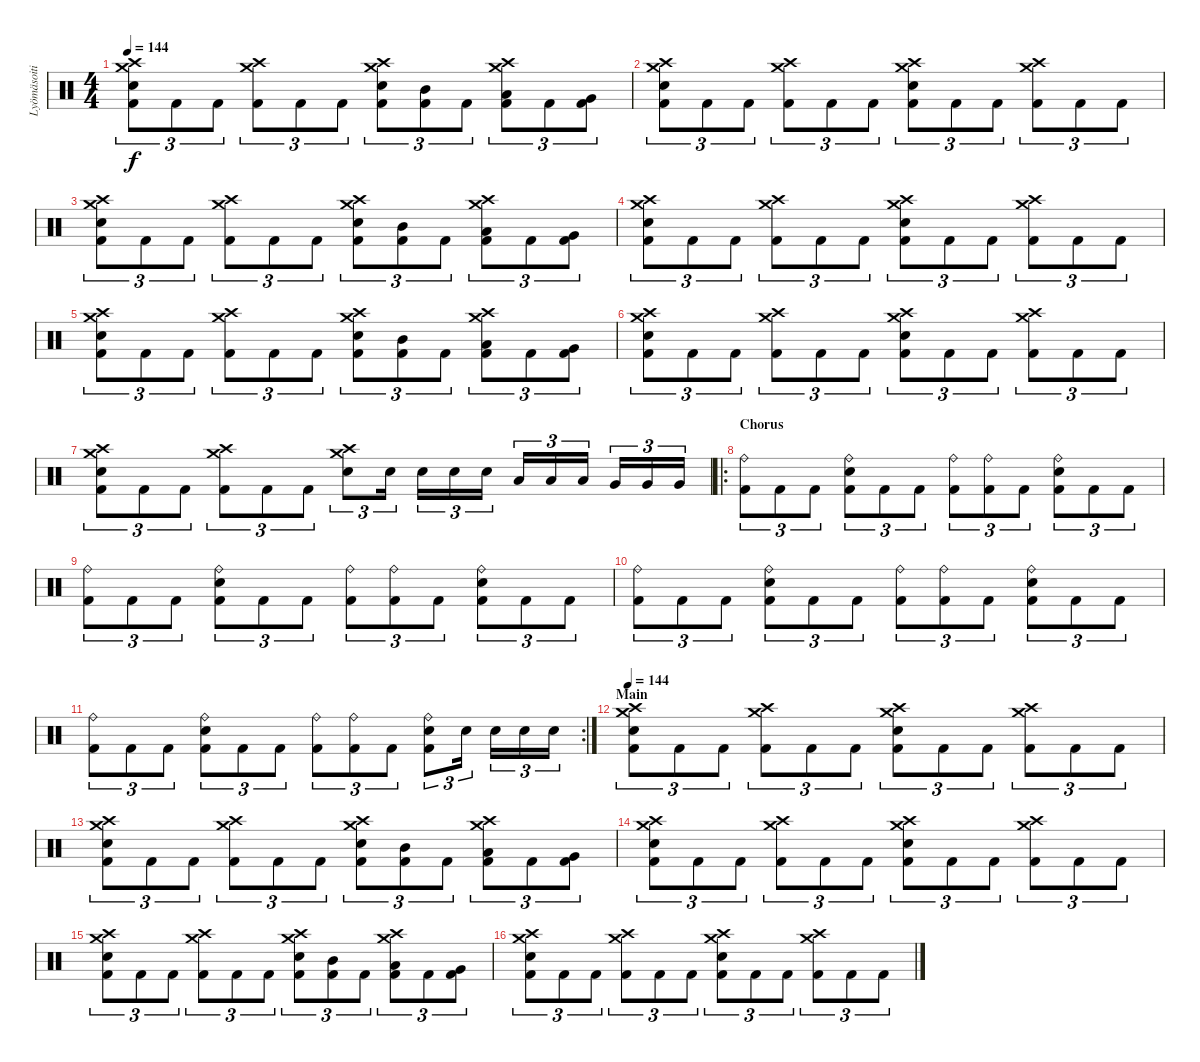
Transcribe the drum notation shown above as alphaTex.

\track ("Lyömäsoitin" "Lyömäsoiti") {instrument percussion}
\staff {score}
\articulation defaults
\ts (4 4)
\tempo 144
\clef neutral
\ks c
("Crash medium (hit)" "Crash high (hit)" "Snare (hit) 2" "Kick (hit) 2").8{tu (3 2) dy f} "Kick (hit) 2".8{tu (3 2)} "Kick (hit) 2".8{tu (3 2)} ("Crash medium (hit)" "Crash high (hit)" "Kick (hit) 2").8{tu (3 2)} "Kick (hit) 2".8{tu (3 2)} "Kick (hit) 2".8{tu (3 2)} ("Crash medium (hit)" "Crash high (hit)" "Snare (hit) 2" "Kick (hit) 2").8{tu (3 2)} ("Mid Tom (hit)" "Kick (hit) 2").8{tu (3 2)} "Kick (hit) 2".8{tu (3 2)} ("Crash medium (hit)" "Crash high (hit)" "Low Tom (hit)" "Kick (hit) 2").8{tu (3 2)} "Kick (hit) 2".8{tu (3 2)} ("Very Low Tom (hit)" "Kick (hit) 2").8{tu (3 2)} |
("Crash medium (hit)" "Crash high (hit)" "Snare (hit) 2" "Kick (hit) 2").8{tu (3 2)} "Kick (hit) 2".8{tu (3 2)} "Kick (hit) 2".8{tu (3 2)} ("Crash medium (hit)" "Crash high (hit)" "Kick (hit) 2").8{tu (3 2)} "Kick (hit) 2".8{tu (3 2)} "Kick (hit) 2".8{tu (3 2)} ("Crash medium (hit)" "Crash high (hit)" "Snare (hit) 2" "Kick (hit) 2").8{tu (3 2)} "Kick (hit) 2".8{tu (3 2)} "Kick (hit) 2".8{tu (3 2)} ("Crash medium (hit)" "Crash high (hit)" "Kick (hit) 2").8{tu (3 2)} "Kick (hit) 2".8{tu (3 2)} "Kick (hit) 2".8{tu (3 2)} |
("Crash medium (hit)" "Crash high (hit)" "Snare (hit) 2" "Kick (hit) 2").8{tu (3 2)} "Kick (hit) 2".8{tu (3 2)} "Kick (hit) 2".8{tu (3 2)} ("Crash medium (hit)" "Crash high (hit)" "Kick (hit) 2").8{tu (3 2)} "Kick (hit) 2".8{tu (3 2)} "Kick (hit) 2".8{tu (3 2)} ("Crash medium (hit)" "Crash high (hit)" "Snare (hit) 2" "Kick (hit) 2").8{tu (3 2)} ("Mid Tom (hit)" "Kick (hit) 2").8{tu (3 2)} "Kick (hit) 2".8{tu (3 2)} ("Crash medium (hit)" "Crash high (hit)" "Low Tom (hit)" "Kick (hit) 2").8{tu (3 2)} "Kick (hit) 2".8{tu (3 2)} ("Very Low Tom (hit)" "Kick (hit) 2").8{tu (3 2)} |
("Crash medium (hit)" "Crash high (hit)" "Snare (hit) 2" "Kick (hit) 2").8{tu (3 2)} "Kick (hit) 2".8{tu (3 2)} "Kick (hit) 2".8{tu (3 2)} ("Crash medium (hit)" "Crash high (hit)" "Kick (hit) 2").8{tu (3 2)} "Kick (hit) 2".8{tu (3 2)} "Kick (hit) 2".8{tu (3 2)} ("Crash medium (hit)" "Crash high (hit)" "Snare (hit) 2" "Kick (hit) 2").8{tu (3 2)} "Kick (hit) 2".8{tu (3 2)} "Kick (hit) 2".8{tu (3 2)} ("Crash medium (hit)" "Crash high (hit)" "Kick (hit) 2").8{tu (3 2)} "Kick (hit) 2".8{tu (3 2)} "Kick (hit) 2".8{tu (3 2)} |
("Crash medium (hit)" "Crash high (hit)" "Snare (hit) 2" "Kick (hit) 2").8{tu (3 2)} "Kick (hit) 2".8{tu (3 2)} "Kick (hit) 2".8{tu (3 2)} ("Crash medium (hit)" "Crash high (hit)" "Kick (hit) 2").8{tu (3 2)} "Kick (hit) 2".8{tu (3 2)} "Kick (hit) 2".8{tu (3 2)} ("Crash medium (hit)" "Crash high (hit)" "Snare (hit) 2" "Kick (hit) 2").8{tu (3 2)} ("Mid Tom (hit)" "Kick (hit) 2").8{tu (3 2)} "Kick (hit) 2".8{tu (3 2)} ("Crash medium (hit)" "Crash high (hit)" "Low Tom (hit)" "Kick (hit) 2").8{tu (3 2)} "Kick (hit) 2".8{tu (3 2)} ("Very Low Tom (hit)" "Kick (hit) 2").8{tu (3 2)} |
("Crash medium (hit)" "Crash high (hit)" "Snare (hit) 2" "Kick (hit) 2").8{tu (3 2)} "Kick (hit) 2".8{tu (3 2)} "Kick (hit) 2".8{tu (3 2)} ("Crash medium (hit)" "Crash high (hit)" "Kick (hit) 2").8{tu (3 2)} "Kick (hit) 2".8{tu (3 2)} "Kick (hit) 2".8{tu (3 2)} ("Crash medium (hit)" "Crash high (hit)" "Snare (hit) 2" "Kick (hit) 2").8{tu (3 2)} "Kick (hit) 2".8{tu (3 2)} "Kick (hit) 2".8{tu (3 2)} ("Crash medium (hit)" "Crash high (hit)" "Kick (hit) 2").8{tu (3 2)} "Kick (hit) 2".8{tu (3 2)} "Kick (hit) 2".8{tu (3 2)} |
("Crash medium (hit)" "Crash high (hit)" "Snare (hit) 2" "Kick (hit) 2").8{tu (3 2)} "Kick (hit) 2".8{tu (3 2)} "Kick (hit) 2".8{tu (3 2)} ("Crash medium (hit)" "Crash high (hit)" "Kick (hit) 2").8{tu (3 2)} "Kick (hit) 2".8{tu (3 2)} "Kick (hit) 2".8{tu (3 2)} ("Crash medium (hit)" "Crash high (hit)" "Snare (hit) 2").8{tu (3 2)} "Snare (hit) 2".16{tu (3 2)} "Snare (hit) 2".16{tu (3 2)} "Snare (hit) 2".16{tu (3 2)} "Snare (hit) 2".16{tu (3 2)} "Low Tom (hit)".16{tu (3 2)} "Low Tom (hit)".16{tu (3 2)} "Low Tom (hit)".16{tu (3 2)} "Very Low Tom (hit)".16{tu (3 2)} "Very Low Tom (hit)".16{tu (3 2)} "Very Low Tom (hit)".16{tu (3 2)} |
\ro
\section ("" "Chorus")
("Ride (bell)" "Kick (hit) 2").8{tu (3 2)} "Kick (hit) 2".8{tu (3 2)} "Kick (hit) 2".8{tu (3 2)} ("Ride (bell)" "Snare (hit) 2" "Kick (hit) 2").8{tu (3 2)} "Kick (hit) 2".8{tu (3 2)} "Kick (hit) 2".8{tu (3 2)} ("Ride (bell)" "Kick (hit) 2").8{tu (3 2)} ("Ride (bell)" "Kick (hit) 2").8{tu (3 2)} "Kick (hit) 2".8{tu (3 2)} ("Ride (bell)" "Snare (hit) 2" "Kick (hit) 2").8{tu (3 2)} "Kick (hit) 2".8{tu (3 2)} "Kick (hit) 2".8{tu (3 2)} |
("Ride (bell)" "Kick (hit) 2").8{tu (3 2)} "Kick (hit) 2".8{tu (3 2)} "Kick (hit) 2".8{tu (3 2)} ("Ride (bell)" "Snare (hit) 2" "Kick (hit) 2").8{tu (3 2)} "Kick (hit) 2".8{tu (3 2)} "Kick (hit) 2".8{tu (3 2)} ("Ride (bell)" "Kick (hit) 2").8{tu (3 2)} ("Ride (bell)" "Kick (hit) 2").8{tu (3 2)} "Kick (hit) 2".8{tu (3 2)} ("Ride (bell)" "Snare (hit) 2" "Kick (hit) 2").8{tu (3 2)} "Kick (hit) 2".8{tu (3 2)} "Kick (hit) 2".8{tu (3 2)} |
("Ride (bell)" "Kick (hit) 2").8{tu (3 2)} "Kick (hit) 2".8{tu (3 2)} "Kick (hit) 2".8{tu (3 2)} ("Ride (bell)" "Snare (hit) 2" "Kick (hit) 2").8{tu (3 2)} "Kick (hit) 2".8{tu (3 2)} "Kick (hit) 2".8{tu (3 2)} ("Ride (bell)" "Kick (hit) 2").8{tu (3 2)} ("Ride (bell)" "Kick (hit) 2").8{tu (3 2)} "Kick (hit) 2".8{tu (3 2)} ("Ride (bell)" "Snare (hit) 2" "Kick (hit) 2").8{tu (3 2)} "Kick (hit) 2".8{tu (3 2)} "Kick (hit) 2".8{tu (3 2)} |
\rc 2
("Ride (bell)" "Kick (hit) 2").8{tu (3 2)} "Kick (hit) 2".8{tu (3 2)} "Kick (hit) 2".8{tu (3 2)} ("Ride (bell)" "Snare (hit) 2" "Kick (hit) 2").8{tu (3 2)} "Kick (hit) 2".8{tu (3 2)} "Kick (hit) 2".8{tu (3 2)} ("Ride (bell)" "Kick (hit) 2").8{tu (3 2)} ("Ride (bell)" "Kick (hit) 2").8{tu (3 2)} "Kick (hit) 2".8{tu (3 2)} ("Ride (bell)" "Snare (hit) 2" "Kick (hit) 2").8{tu (3 2)} "Snare (hit) 2".16{tu (3 2)} "Snare (hit) 2".16{tu (3 2)} "Snare (hit) 2".16{tu (3 2)} "Snare (hit) 2".16{tu (3 2)} |
\section ("" "Main")
\tempo 144
("Crash medium (hit)" "Crash high (hit)" "Snare (hit) 2" "Kick (hit) 2").8{tu (3 2)} "Kick (hit) 2".8{tu (3 2)} "Kick (hit) 2".8{tu (3 2)} ("Crash medium (hit)" "Crash high (hit)" "Kick (hit) 2").8{tu (3 2)} "Kick (hit) 2".8{tu (3 2)} "Kick (hit) 2".8{tu (3 2)} ("Crash medium (hit)" "Crash high (hit)" "Snare (hit) 2" "Kick (hit) 2").8{tu (3 2)} "Kick (hit) 2".8{tu (3 2)} "Kick (hit) 2".8{tu (3 2)} ("Crash medium (hit)" "Crash high (hit)" "Kick (hit) 2").8{tu (3 2)} "Kick (hit) 2".8{tu (3 2)} "Kick (hit) 2".8{tu (3 2)} |
("Crash medium (hit)" "Crash high (hit)" "Snare (hit) 2" "Kick (hit) 2").8{tu (3 2)} "Kick (hit) 2".8{tu (3 2)} "Kick (hit) 2".8{tu (3 2)} ("Crash medium (hit)" "Crash high (hit)" "Kick (hit) 2").8{tu (3 2)} "Kick (hit) 2".8{tu (3 2)} "Kick (hit) 2".8{tu (3 2)} ("Crash medium (hit)" "Crash high (hit)" "Snare (hit) 2" "Kick (hit) 2").8{tu (3 2)} ("Mid Tom (hit)" "Kick (hit) 2").8{tu (3 2)} "Kick (hit) 2".8{tu (3 2)} ("Crash medium (hit)" "Crash high (hit)" "Low Tom (hit)" "Kick (hit) 2").8{tu (3 2)} "Kick (hit) 2".8{tu (3 2)} ("Very Low Tom (hit)" "Kick (hit) 2").8{tu (3 2)} |
("Crash medium (hit)" "Crash high (hit)" "Snare (hit) 2" "Kick (hit) 2").8{tu (3 2)} "Kick (hit) 2".8{tu (3 2)} "Kick (hit) 2".8{tu (3 2)} ("Crash medium (hit)" "Crash high (hit)" "Kick (hit) 2").8{tu (3 2)} "Kick (hit) 2".8{tu (3 2)} "Kick (hit) 2".8{tu (3 2)} ("Crash medium (hit)" "Crash high (hit)" "Snare (hit) 2" "Kick (hit) 2").8{tu (3 2)} "Kick (hit) 2".8{tu (3 2)} "Kick (hit) 2".8{tu (3 2)} ("Crash medium (hit)" "Crash high (hit)" "Kick (hit) 2").8{tu (3 2)} "Kick (hit) 2".8{tu (3 2)} "Kick (hit) 2".8{tu (3 2)} |
("Crash medium (hit)" "Crash high (hit)" "Snare (hit) 2" "Kick (hit) 2").8{tu (3 2)} "Kick (hit) 2".8{tu (3 2)} "Kick (hit) 2".8{tu (3 2)} ("Crash medium (hit)" "Crash high (hit)" "Kick (hit) 2").8{tu (3 2)} "Kick (hit) 2".8{tu (3 2)} "Kick (hit) 2".8{tu (3 2)} ("Crash medium (hit)" "Crash high (hit)" "Snare (hit) 2" "Kick (hit) 2").8{tu (3 2)} ("Mid Tom (hit)" "Kick (hit) 2").8{tu (3 2)} "Kick (hit) 2".8{tu (3 2)} ("Crash medium (hit)" "Crash high (hit)" "Low Tom (hit)" "Kick (hit) 2").8{tu (3 2)} "Kick (hit) 2".8{tu (3 2)} ("Very Low Tom (hit)" "Kick (hit) 2").8{tu (3 2)} |
("Crash medium (hit)" "Crash high (hit)" "Snare (hit) 2" "Kick (hit) 2").8{tu (3 2)} "Kick (hit) 2".8{tu (3 2)} "Kick (hit) 2".8{tu (3 2)} ("Crash medium (hit)" "Crash high (hit)" "Kick (hit) 2").8{tu (3 2)} "Kick (hit) 2".8{tu (3 2)} "Kick (hit) 2".8{tu (3 2)} ("Crash medium (hit)" "Crash high (hit)" "Snare (hit) 2" "Kick (hit) 2").8{tu (3 2)} "Kick (hit) 2".8{tu (3 2)} "Kick (hit) 2".8{tu (3 2)} ("Crash medium (hit)" "Crash high (hit)" "Kick (hit) 2").8{tu (3 2)} "Kick (hit) 2".8{tu (3 2)} "Kick (hit) 2".8{tu (3 2)}
